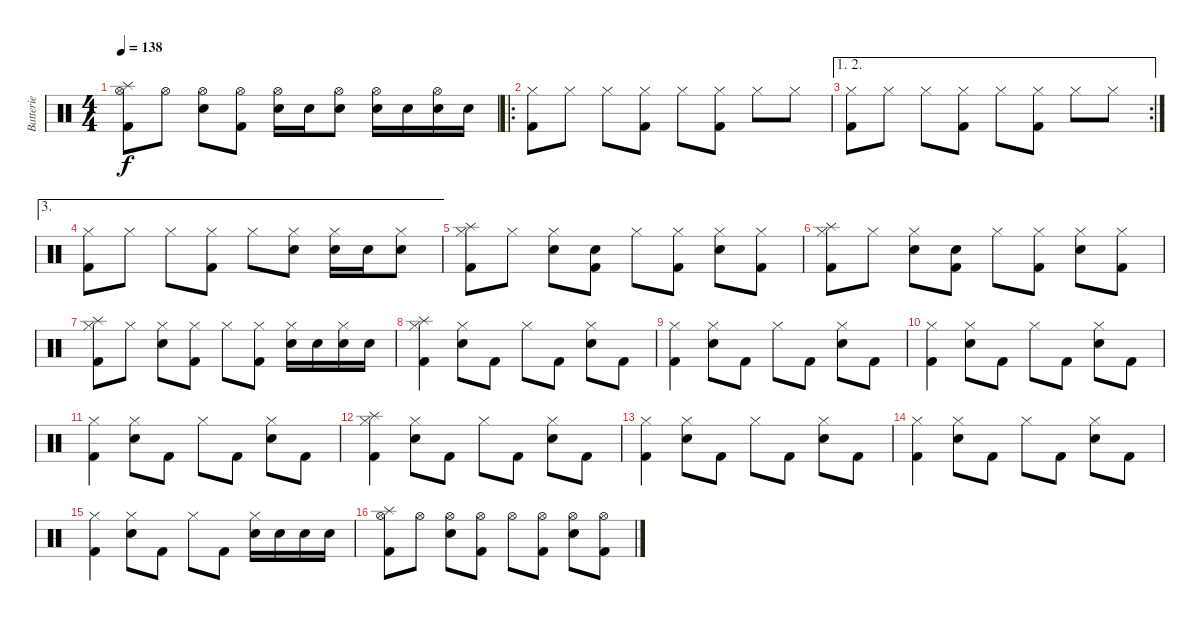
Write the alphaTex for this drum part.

\track ("Batterie" "Batterie") {instrument percussion}
\staff {score}
\articulation defaults
\ts (4 4)
\tempo 138
\clef neutral
\ks c
("Splash (hit)" "Hi-Hat (open)" "Kick (hit) 2").8{dy f} "Hi-Hat (open)".8 ("Hi-Hat (open)" "Snare (hit) 2").8 ("Hi-Hat (open)" "Kick (hit) 2").8 ("Hi-Hat (open)" "Snare (hit) 2").16 "Snare (hit) 2".16 ("Hi-Hat (open)" "Snare (hit) 2").8 ("Hi-Hat (open)" "Snare (hit) 2").16 "Snare (hit) 2".16 ("Hi-Hat (open)" "Snare (hit) 2").16 "Snare (hit) 2".16 |
\ro
("Hi-Hat (closed)" "Kick (hit) 2").8 "Hi-Hat (closed)".8 "Hi-Hat (closed)".8 ("Hi-Hat (closed)" "Kick (hit) 2").8 "Hi-Hat (closed)".8 ("Hi-Hat (closed)" "Kick (hit) 2").8 "Hi-Hat (closed)".8 "Hi-Hat (closed)".8 |
\ae (1 2)
\rc 2
("Hi-Hat (closed)" "Kick (hit) 2").8 "Hi-Hat (closed)".8 "Hi-Hat (closed)".8 ("Hi-Hat (closed)" "Kick (hit) 2").8 "Hi-Hat (closed)".8 ("Hi-Hat (closed)" "Kick (hit) 2").8 "Hi-Hat (closed)".8 "Hi-Hat (closed)".8 |
\ae 3
("Hi-Hat (closed)" "Kick (hit) 2").8 "Hi-Hat (closed)".8 "Hi-Hat (closed)".8 ("Hi-Hat (closed)" "Kick (hit) 2").8 "Hi-Hat (closed)".8 ("Hi-Hat (closed)" "Snare (hit) 2").8 ("Hi-Hat (closed)" "Snare (hit) 2").16 "Snare (hit) 2".16 ("Hi-Hat (closed)" "Snare (hit) 2").8 |
("Splash (hit)" "Hi-Hat (closed)" "Kick (hit) 2").8 "Hi-Hat (closed)".8 ("Hi-Hat (closed)" "Snare (hit) 2").8 ("Snare (hit)" "Kick (hit) 2").8 "Hi-Hat (closed)".8 ("Hi-Hat (closed)" "Kick (hit) 2").8 ("Hi-Hat (closed)" "Snare (hit) 2").8 ("Hi-Hat (closed)" "Kick (hit) 2").8 |
("Splash (hit)" "Hi-Hat (closed)" "Kick (hit) 2").8 "Hi-Hat (closed)".8 ("Hi-Hat (closed)" "Snare (hit) 2").8 ("Snare (hit)" "Kick (hit) 2").8 "Hi-Hat (closed)".8 ("Hi-Hat (closed)" "Kick (hit) 2").8 ("Hi-Hat (closed)" "Snare (hit) 2").8 ("Hi-Hat (closed)" "Kick (hit) 2").8 |
("Splash (hit)" "Hi-Hat (closed)" "Kick (hit) 2").8 "Hi-Hat (closed)".8 ("Hi-Hat (closed)" "Snare (hit) 2").8 ("Hi-Hat (closed)" "Kick (hit) 2").8 "Hi-Hat (closed)".8 ("Hi-Hat (closed)" "Kick (hit) 2").8 ("Hi-Hat (closed)" "Snare (hit) 2").16 "Snare (hit) 2".16 ("Hi-Hat (closed)" "Snare (hit) 2").16 "Snare (hit) 2".16 |
("Splash (hit)" "Hi-Hat (closed)" "Kick (hit) 2").4 ("Hi-Hat (closed)" "Snare (hit) 2").8 "Kick (hit) 2".8 "Hi-Hat (closed)".8 "Kick (hit) 2".8 ("Hi-Hat (closed)" "Snare (hit) 2").8 "Kick (hit) 2".8 |
("Hi-Hat (closed)" "Kick (hit) 2").4 ("Hi-Hat (closed)" "Snare (hit) 2").8 "Kick (hit) 2".8 "Hi-Hat (closed)".8 "Kick (hit) 2".8 ("Hi-Hat (closed)" "Snare (hit) 2").8 "Kick (hit) 2".8 |
("Hi-Hat (closed)" "Kick (hit) 2").4 ("Hi-Hat (closed)" "Snare (hit) 2").8 "Kick (hit) 2".8 "Hi-Hat (closed)".8 "Kick (hit) 2".8 ("Hi-Hat (closed)" "Snare (hit) 2").8 "Kick (hit) 2".8 |
("Hi-Hat (closed)" "Kick (hit) 2").4 ("Hi-Hat (closed)" "Snare (hit) 2").8 "Kick (hit) 2".8 "Hi-Hat (closed)".8 "Kick (hit) 2".8 ("Hi-Hat (closed)" "Snare (hit) 2").8 "Kick (hit) 2".8 |
("Splash (hit)" "Hi-Hat (closed)" "Kick (hit) 2").4 ("Hi-Hat (closed)" "Snare (hit) 2").8 "Kick (hit) 2".8 "Hi-Hat (closed)".8 "Kick (hit) 2".8 ("Hi-Hat (closed)" "Snare (hit) 2").8 "Kick (hit) 2".8 |
("Hi-Hat (closed)" "Kick (hit) 2").4 ("Hi-Hat (closed)" "Snare (hit) 2").8 "Kick (hit) 2".8 "Hi-Hat (closed)".8 "Kick (hit) 2".8 ("Hi-Hat (closed)" "Snare (hit) 2").8 "Kick (hit) 2".8 |
("Hi-Hat (closed)" "Kick (hit) 2").4 ("Hi-Hat (closed)" "Snare (hit) 2").8 "Kick (hit) 2".8 "Hi-Hat (closed)".8 "Kick (hit) 2".8 ("Hi-Hat (closed)" "Snare (hit) 2").8 "Kick (hit) 2".8 |
("Hi-Hat (closed)" "Kick (hit) 2").4 ("Hi-Hat (closed)" "Snare (hit) 2").8 "Kick (hit) 2".8 "Hi-Hat (closed)".8 "Kick (hit) 2".8 ("Hi-Hat (closed)" "Snare (hit) 2").16 "Snare (hit) 2".16 "Snare (hit) 2".16 "Snare (hit) 2".16 |
("Splash (hit)" "Hi-Hat (open)" "Kick (hit) 2").8 "Hi-Hat (open)".8 ("Hi-Hat (open)" "Snare (hit) 2").8 ("Hi-Hat (open)" "Kick (hit) 2").8 "Hi-Hat (open)".8 ("Hi-Hat (open)" "Kick (hit) 2").8 ("Hi-Hat (open)" "Snare (hit) 2").8 ("Hi-Hat (open)" "Kick (hit) 2").8
